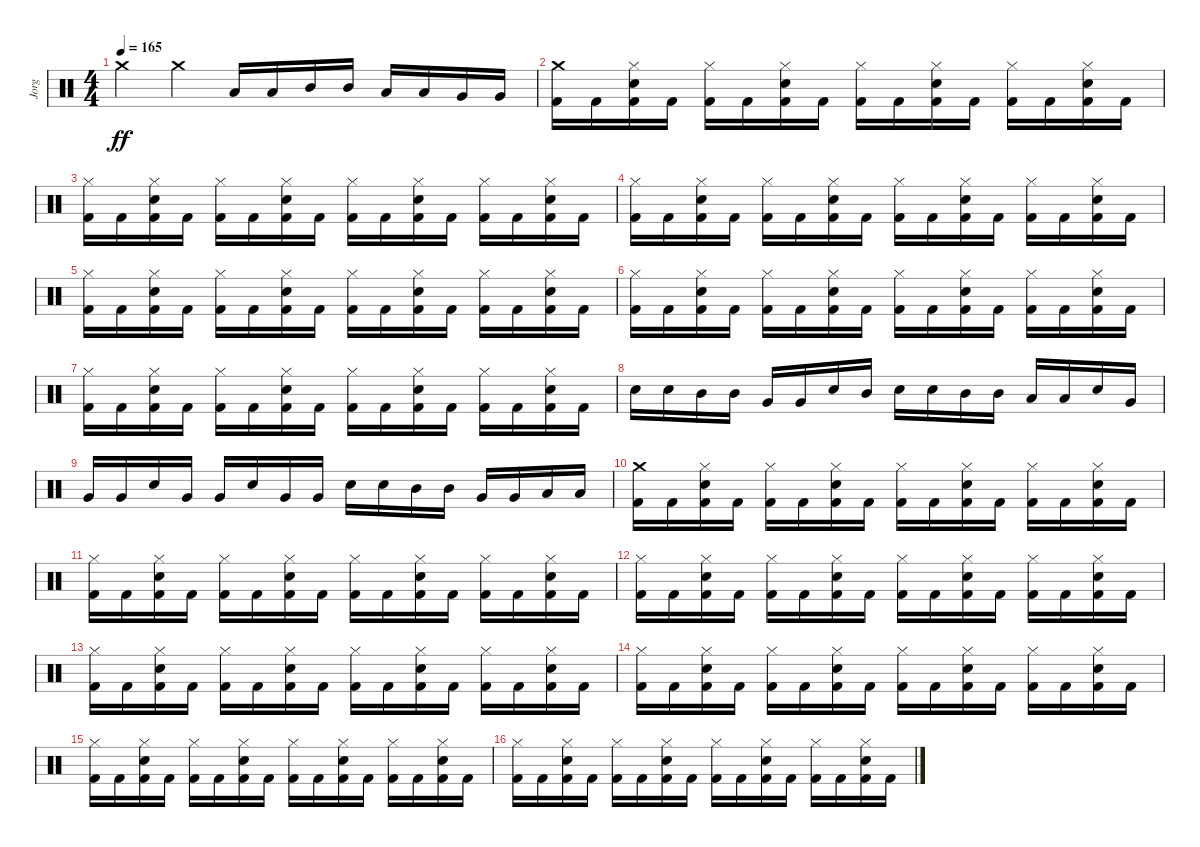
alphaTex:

\track ("Jorg" "Jorg") {instrument percussion}
\staff {score}
\articulation defaults
\ts (4 4)
\tempo 165
\clef neutral
\ks c "Crash medium (hit)".4{dy ff} "Crash medium (hit)".4 "Low Floor Tom (hit)".16 "Low Floor Tom (hit)".16 "Mid Tom (hit)".16 "Mid Tom (hit)".16 "Low Tom (hit)".16 "Low Tom (hit)".16 "Very Low Tom (hit)".16 "Very Low Tom (hit)".16
|
("Crash medium (hit)" "Kick (hit) 2").16 "Kick (hit) 2".16 ("Hi-Hat (closed)" "Electric Snare (hit)" "Kick (hit) 2").16 "Kick (hit) 2".16 ("Hi-Hat (closed)" "Kick (hit) 2").16 "Kick (hit) 2".16 ("Hi-Hat (closed)" "Electric Snare (hit)" "Kick (hit) 2").16 "Kick (hit) 2".16 ("Hi-Hat (closed)" "Kick (hit) 2").16 "Kick (hit) 2".16 ("Hi-Hat (closed)" "Electric Snare (hit)" "Kick (hit) 2").16 "Kick (hit) 2".16 ("Hi-Hat (closed)" "Kick (hit) 2").16 "Kick (hit) 2".16 ("Hi-Hat (closed)" "Electric Snare (hit)" "Kick (hit) 2").16 "Kick (hit) 2".16 |
("Hi-Hat (closed)" "Kick (hit) 2").16 "Kick (hit) 2".16 ("Hi-Hat (closed)" "Electric Snare (hit)" "Kick (hit) 2").16 "Kick (hit) 2".16 ("Hi-Hat (closed)" "Kick (hit) 2").16 "Kick (hit) 2".16 ("Hi-Hat (closed)" "Electric Snare (hit)" "Kick (hit) 2").16 "Kick (hit) 2".16 ("Hi-Hat (closed)" "Kick (hit) 2").16 "Kick (hit) 2".16 ("Hi-Hat (closed)" "Electric Snare (hit)" "Kick (hit) 2").16 "Kick (hit) 2".16 ("Hi-Hat (closed)" "Kick (hit) 2").16 "Kick (hit) 2".16 ("Hi-Hat (closed)" "Electric Snare (hit)" "Kick (hit) 2").16 "Kick (hit) 2".16 |
("Hi-Hat (closed)" "Kick (hit) 2").16 "Kick (hit) 2".16 ("Hi-Hat (closed)" "Electric Snare (hit)" "Kick (hit) 2").16 "Kick (hit) 2".16 ("Hi-Hat (closed)" "Kick (hit) 2").16 "Kick (hit) 2".16 ("Hi-Hat (closed)" "Electric Snare (hit)" "Kick (hit) 2").16 "Kick (hit) 2".16 ("Hi-Hat (closed)" "Kick (hit) 2").16 "Kick (hit) 2".16 ("Hi-Hat (closed)" "Electric Snare (hit)" "Kick (hit) 2").16 "Kick (hit) 2".16 ("Hi-Hat (closed)" "Kick (hit) 2").16 "Kick (hit) 2".16 ("Hi-Hat (closed)" "Electric Snare (hit)" "Kick (hit) 2").16 "Kick (hit) 2".16 |
("Hi-Hat (closed)" "Kick (hit) 2").16 "Kick (hit) 2".16 ("Hi-Hat (closed)" "Electric Snare (hit)" "Kick (hit) 2").16 "Kick (hit) 2".16 ("Hi-Hat (closed)" "Kick (hit) 2").16 "Kick (hit) 2".16 ("Hi-Hat (closed)" "Electric Snare (hit)" "Kick (hit) 2").16 "Kick (hit) 2".16 ("Hi-Hat (closed)" "Kick (hit) 2").16 "Kick (hit) 2".16 ("Hi-Hat (closed)" "Electric Snare (hit)" "Kick (hit) 2").16 "Kick (hit) 2".16 ("Hi-Hat (closed)" "Kick (hit) 2").16 "Kick (hit) 2".16 ("Hi-Hat (closed)" "Electric Snare (hit)" "Kick (hit) 2").16 "Kick (hit) 2".16 |
("Hi-Hat (closed)" "Kick (hit) 2").16 "Kick (hit) 2".16 ("Hi-Hat (closed)" "Electric Snare (hit)" "Kick (hit) 2").16 "Kick (hit) 2".16 ("Hi-Hat (closed)" "Kick (hit) 2").16 "Kick (hit) 2".16 ("Hi-Hat (closed)" "Electric Snare (hit)" "Kick (hit) 2").16 "Kick (hit) 2".16 ("Hi-Hat (closed)" "Kick (hit) 2").16 "Kick (hit) 2".16 ("Hi-Hat (closed)" "Electric Snare (hit)" "Kick (hit) 2").16 "Kick (hit) 2".16 ("Hi-Hat (closed)" "Kick (hit) 2").16 "Kick (hit) 2".16 ("Hi-Hat (closed)" "Electric Snare (hit)" "Kick (hit) 2").16 "Kick (hit) 2".16 |
("Hi-Hat (closed)" "Kick (hit) 2").16 "Kick (hit) 2".16 ("Hi-Hat (closed)" "Electric Snare (hit)" "Kick (hit) 2").16 "Kick (hit) 2".16 ("Hi-Hat (closed)" "Kick (hit) 2").16 "Kick (hit) 2".16 ("Hi-Hat (closed)" "Electric Snare (hit)" "Kick (hit) 2").16 "Kick (hit) 2".16 ("Hi-Hat (closed)" "Kick (hit) 2").16 "Kick (hit) 2".16 ("Hi-Hat (closed)" "Electric Snare (hit)" "Kick (hit) 2").16 "Kick (hit) 2".16 ("Hi-Hat (closed)" "Kick (hit) 2").16 "Kick (hit) 2".16 ("Hi-Hat (closed)" "Electric Snare (hit)" "Kick (hit) 2").16 "Kick (hit) 2".16 |
"Electric Snare (hit)".16 "Electric Snare (hit)".16 "Mid Tom (hit)".16 "Mid Tom (hit)".16 "Very Low Tom (hit)".16 "Very Low Tom (hit)".16 "Electric Snare (hit)".16 "Mid Tom (hit)".16 "Electric Snare (hit)".16 "Electric Snare (hit)".16 "Mid Tom (hit)".16 "Mid Tom (hit)".16 "Low Tom (hit)".16 "Low Tom (hit)".16 "Electric Snare (hit)".16 "Very Low Tom (hit)".16 |
"Very Low Tom (hit)".16 "Very Low Tom (hit)".16 "Electric Snare (hit)".16 "Very Low Tom (hit)".16 "Very Low Tom (hit)".16 "Electric Snare (hit)".16 "Very Low Tom (hit)".16 "Very Low Tom (hit)".16 "Electric Snare (hit)".16 "Electric Snare (hit)".16 "Mid Tom (hit)".16 "Mid Tom (hit)".16 "Very Low Tom (hit)".16 "Very Low Tom (hit)".16 "Low Floor Tom (hit)".16 "Low Floor Tom (hit)".16 |
("Crash medium (hit)" "Kick (hit) 2").16 "Kick (hit) 2".16 ("Hi-Hat (closed)" "Electric Snare (hit)" "Kick (hit) 2").16 "Kick (hit) 2".16 ("Hi-Hat (closed)" "Kick (hit) 2").16 "Kick (hit) 2".16 ("Hi-Hat (closed)" "Electric Snare (hit)" "Kick (hit) 2").16 "Kick (hit) 2".16 ("Hi-Hat (closed)" "Kick (hit) 2").16 "Kick (hit) 2".16 ("Hi-Hat (closed)" "Electric Snare (hit)" "Kick (hit) 2").16 "Kick (hit) 2".16 ("Hi-Hat (closed)" "Kick (hit) 2").16 "Kick (hit) 2".16 ("Hi-Hat (closed)" "Electric Snare (hit)" "Kick (hit) 2").16 "Kick (hit) 2".16 |
("Hi-Hat (closed)" "Kick (hit) 2").16 "Kick (hit) 2".16 ("Hi-Hat (closed)" "Electric Snare (hit)" "Kick (hit) 2").16 "Kick (hit) 2".16 ("Hi-Hat (closed)" "Kick (hit) 2").16 "Kick (hit) 2".16 ("Hi-Hat (closed)" "Electric Snare (hit)" "Kick (hit) 2").16 "Kick (hit) 2".16 ("Hi-Hat (closed)" "Kick (hit) 2").16 "Kick (hit) 2".16 ("Hi-Hat (closed)" "Electric Snare (hit)" "Kick (hit) 2").16 "Kick (hit) 2".16 ("Hi-Hat (closed)" "Kick (hit) 2").16 "Kick (hit) 2".16 ("Hi-Hat (closed)" "Electric Snare (hit)" "Kick (hit) 2").16 "Kick (hit) 2".16 |
("Hi-Hat (closed)" "Kick (hit) 2").16 "Kick (hit) 2".16 ("Hi-Hat (closed)" "Electric Snare (hit)" "Kick (hit) 2").16 "Kick (hit) 2".16 ("Hi-Hat (closed)" "Kick (hit) 2").16 "Kick (hit) 2".16 ("Hi-Hat (closed)" "Electric Snare (hit)" "Kick (hit) 2").16 "Kick (hit) 2".16 ("Hi-Hat (closed)" "Kick (hit) 2").16 "Kick (hit) 2".16 ("Hi-Hat (closed)" "Electric Snare (hit)" "Kick (hit) 2").16 "Kick (hit) 2".16 ("Hi-Hat (closed)" "Kick (hit) 2").16 "Kick (hit) 2".16 ("Hi-Hat (closed)" "Electric Snare (hit)" "Kick (hit) 2").16 "Kick (hit) 2".16 |
("Hi-Hat (closed)" "Kick (hit) 2").16 "Kick (hit) 2".16 ("Hi-Hat (closed)" "Electric Snare (hit)" "Kick (hit) 2").16 "Kick (hit) 2".16 ("Hi-Hat (closed)" "Kick (hit) 2").16 "Kick (hit) 2".16 ("Hi-Hat (closed)" "Electric Snare (hit)" "Kick (hit) 2").16 "Kick (hit) 2".16 ("Hi-Hat (closed)" "Kick (hit) 2").16 "Kick (hit) 2".16 ("Hi-Hat (closed)" "Electric Snare (hit)" "Kick (hit) 2").16 "Kick (hit) 2".16 ("Hi-Hat (closed)" "Kick (hit) 2").16 "Kick (hit) 2".16 ("Hi-Hat (closed)" "Electric Snare (hit)" "Kick (hit) 2").16 "Kick (hit) 2".16 |
("Hi-Hat (closed)" "Kick (hit) 2").16 "Kick (hit) 2".16 ("Hi-Hat (closed)" "Electric Snare (hit)" "Kick (hit) 2").16 "Kick (hit) 2".16 ("Hi-Hat (closed)" "Kick (hit) 2").16 "Kick (hit) 2".16 ("Hi-Hat (closed)" "Electric Snare (hit)" "Kick (hit) 2").16 "Kick (hit) 2".16 ("Hi-Hat (closed)" "Kick (hit) 2").16 "Kick (hit) 2".16 ("Hi-Hat (closed)" "Electric Snare (hit)" "Kick (hit) 2").16 "Kick (hit) 2".16 ("Hi-Hat (closed)" "Kick (hit) 2").16 "Kick (hit) 2".16 ("Hi-Hat (closed)" "Electric Snare (hit)" "Kick (hit) 2").16 "Kick (hit) 2".16 |
("Hi-Hat (closed)" "Kick (hit) 2").16 "Kick (hit) 2".16 ("Hi-Hat (closed)" "Electric Snare (hit)" "Kick (hit) 2").16 "Kick (hit) 2".16 ("Hi-Hat (closed)" "Kick (hit) 2").16 "Kick (hit) 2".16 ("Hi-Hat (closed)" "Electric Snare (hit)" "Kick (hit) 2").16 "Kick (hit) 2".16 ("Hi-Hat (closed)" "Kick (hit) 2").16 "Kick (hit) 2".16 ("Hi-Hat (closed)" "Electric Snare (hit)" "Kick (hit) 2").16 "Kick (hit) 2".16 ("Hi-Hat (closed)" "Kick (hit) 2").16 "Kick (hit) 2".16 ("Hi-Hat (closed)" "Electric Snare (hit)" "Kick (hit) 2").16 "Kick (hit) 2".16 |
("Hi-Hat (closed)" "Kick (hit) 2").16 "Kick (hit) 2".16 ("Hi-Hat (closed)" "Electric Snare (hit)" "Kick (hit) 2").16 "Kick (hit) 2".16 ("Hi-Hat (closed)" "Kick (hit) 2").16 "Kick (hit) 2".16 ("Hi-Hat (closed)" "Electric Snare (hit)" "Kick (hit) 2").16 "Kick (hit) 2".16 ("Hi-Hat (closed)" "Kick (hit) 2").16 "Kick (hit) 2".16 ("Hi-Hat (closed)" "Electric Snare (hit)" "Kick (hit) 2").16 "Kick (hit) 2".16 ("Hi-Hat (closed)" "Kick (hit) 2").16 "Kick (hit) 2".16 ("Hi-Hat (closed)" "Electric Snare (hit)" "Kick (hit) 2").16 "Kick (hit) 2".16
